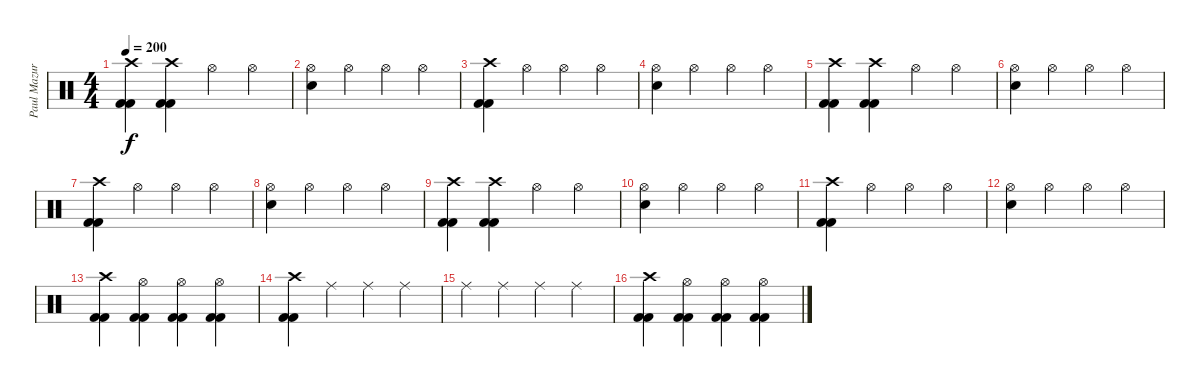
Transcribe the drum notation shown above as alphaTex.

\track ("Paul Mazurkiewicz" "Paul Mazur") {instrument percussion}
\staff {score}
\articulation defaults
\ts (4 4)
\tempo 200
\clef neutral
\ks c
("Crash high (hit)" "Kick (hit) 2" "Kick (hit) 2").4{dy f} ("Crash high (hit)" "Kick (hit) 2" "Kick (hit) 2").4 "Hi-Hat (open)".4 "Hi-Hat (open)".4 |
("Hi-Hat (open)" "Electric Snare (hit)").4 "Hi-Hat (open)".4 "Hi-Hat (open)".4 "Hi-Hat (open)".4 |
("Crash high (hit)" "Kick (hit) 2" "Kick (hit) 2").4 "Hi-Hat (open)".4 "Hi-Hat (open)".4 "Hi-Hat (open)".4 |
("Hi-Hat (open)" "Electric Snare (hit)").4 "Hi-Hat (open)".4 "Hi-Hat (open)".4 "Hi-Hat (open)".4 |
("Crash high (hit)" "Kick (hit) 2" "Kick (hit) 2").4 ("Crash high (hit)" "Kick (hit) 2" "Kick (hit) 2").4 "Hi-Hat (open)".4 "Hi-Hat (open)".4 |
("Hi-Hat (open)" "Electric Snare (hit)").4 "Hi-Hat (open)".4 "Hi-Hat (open)".4 "Hi-Hat (open)".4 |
("Crash high (hit)" "Kick (hit) 2" "Kick (hit) 2").4 "Hi-Hat (open)".4 "Hi-Hat (open)".4 "Hi-Hat (open)".4 |
("Hi-Hat (open)" "Electric Snare (hit)").4 "Hi-Hat (open)".4 "Hi-Hat (open)".4 "Hi-Hat (open)".4 |
("Crash high (hit)" "Kick (hit) 2" "Kick (hit) 2").4 ("Crash high (hit)" "Kick (hit) 2" "Kick (hit) 2").4 "Hi-Hat (open)".4 "Hi-Hat (open)".4 |
("Hi-Hat (open)" "Electric Snare (hit)").4 "Hi-Hat (open)".4 "Hi-Hat (open)".4 "Hi-Hat (open)".4 |
("Crash high (hit)" "Kick (hit) 2" "Kick (hit) 2").4 "Hi-Hat (open)".4 "Hi-Hat (open)".4 "Hi-Hat (open)".4 |
("Hi-Hat (open)" "Electric Snare (hit)").4 "Hi-Hat (open)".4 "Hi-Hat (open)".4 "Hi-Hat (open)".4 |
("Crash high (hit)" "Kick (hit) 2" "Kick (hit) 2").4 ("Hi-Hat (open)" "Kick (hit) 2" "Kick (hit) 2").4 ("Hi-Hat (open)" "Kick (hit) 2" "Kick (hit) 2").4 ("Hi-Hat (open)" "Kick (hit) 2" "Kick (hit) 2").4 |
("Crash high (hit)" "Kick (hit) 2" "Kick (hit) 2").4 "Ride (middle)".4 "Ride (middle)".4 "Ride (middle)".4 |
"Ride (middle)".4 "Ride (middle)".4 "Ride (middle)".4 "Ride (middle)".4 |
("Crash high (hit)" "Kick (hit) 2" "Kick (hit) 2").4 ("Hi-Hat (open)" "Kick (hit) 2" "Kick (hit) 2").4 ("Hi-Hat (open)" "Kick (hit) 2" "Kick (hit) 2").4 ("Hi-Hat (open)" "Kick (hit) 2" "Kick (hit) 2").4
